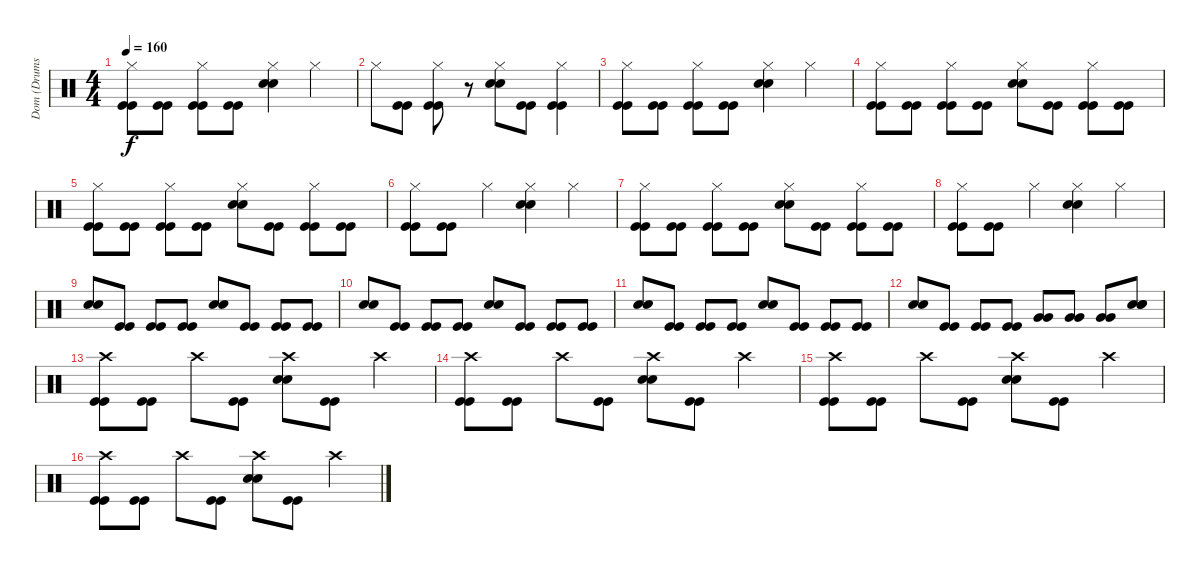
\track ("Dom (Drums)" "Dom (Drums") {instrument percussion}
\staff {score}
\articulation defaults
\ts (4 4)
\tempo 160
\clef neutral
\ks c
("Hi-Hat (closed)" "Kick (hit)" "Kick (hit)").8{dy f} ("Kick (hit)" "Kick (hit)").8 ("Hi-Hat (closed)" "Kick (hit)" "Kick (hit)").8 ("Kick (hit)" "Kick (hit)").8 ("Hi-Hat (closed)" "Snare (hit) 2" "Snare (hit) 2").4 "Hi-Hat (closed)".4 |
"Hi-Hat (closed)".8 ("Kick (hit)" "Kick (hit)").8 ("Hi-Hat (closed)" "Kick (hit)" "Kick (hit)").8 r.8 ("Hi-Hat (closed)" "Snare (hit) 2" "Snare (hit) 2").8 ("Kick (hit)" "Kick (hit)").8 ("Hi-Hat (closed)" "Kick (hit)" "Kick (hit)").4 |
("Hi-Hat (closed)" "Kick (hit)" "Kick (hit)").8 ("Kick (hit)" "Kick (hit)").8 ("Hi-Hat (closed)" "Kick (hit)" "Kick (hit)").8 ("Kick (hit)" "Kick (hit)").8 ("Hi-Hat (closed)" "Snare (hit) 2" "Snare (hit) 2").4 "Hi-Hat (closed)".4 |
("Hi-Hat (closed)" "Kick (hit)" "Kick (hit)").8 ("Kick (hit)" "Kick (hit)").8 ("Hi-Hat (closed)" "Kick (hit)" "Kick (hit)").8 ("Kick (hit)" "Kick (hit)").8 ("Hi-Hat (closed)" "Snare (hit) 2" "Snare (hit) 2").8 ("Kick (hit)" "Kick (hit)").8 ("Hi-Hat (closed)" "Kick (hit)" "Kick (hit)").8 ("Kick (hit)" "Kick (hit)").8 |
("Hi-Hat (closed)" "Kick (hit)" "Kick (hit)").8 ("Kick (hit)" "Kick (hit)").8 ("Hi-Hat (closed)" "Kick (hit)" "Kick (hit)").8 ("Kick (hit)" "Kick (hit)").8 ("Hi-Hat (closed)" "Snare (hit) 2" "Snare (hit) 2").8 ("Kick (hit)" "Kick (hit)").8 ("Hi-Hat (closed)" "Kick (hit)" "Kick (hit)").8 ("Kick (hit)" "Kick (hit)").8 |
("Hi-Hat (closed)" "Kick (hit)" "Kick (hit)").8 ("Kick (hit)" "Kick (hit)").8 "Hi-Hat (closed)".4 ("Hi-Hat (closed)" "Snare (hit) 2" "Snare (hit) 2").4 "Hi-Hat (closed)".4 |
("Hi-Hat (closed)" "Kick (hit)" "Kick (hit)").8 ("Kick (hit)" "Kick (hit)").8 ("Hi-Hat (closed)" "Kick (hit)" "Kick (hit)").8 ("Kick (hit)" "Kick (hit)").8 ("Hi-Hat (closed)" "Snare (hit) 2" "Snare (hit) 2").8 ("Kick (hit)" "Kick (hit)").8 ("Hi-Hat (closed)" "Kick (hit)" "Kick (hit)").8 ("Kick (hit)" "Kick (hit)").8 |
("Hi-Hat (closed)" "Kick (hit)" "Kick (hit)").8 ("Kick (hit)" "Kick (hit)").8 "Hi-Hat (closed)".4 ("Hi-Hat (closed)" "Snare (hit) 2" "Snare (hit) 2").4 "Hi-Hat (closed)".4 |
("Snare (hit) 2" "Snare (hit) 2").8 ("Kick (hit)" "Kick (hit)").8 ("Kick (hit)" "Kick (hit)").8 ("Kick (hit)" "Kick (hit)").8 ("Snare (hit) 2" "Snare (hit) 2").8 ("Kick (hit)" "Kick (hit)").8 ("Kick (hit)" "Kick (hit)").8 ("Kick (hit)" "Kick (hit)").8 |
("Snare (hit) 2" "Snare (hit) 2").8 ("Kick (hit)" "Kick (hit)").8 ("Kick (hit)" "Kick (hit)").8 ("Kick (hit)" "Kick (hit)").8 ("Snare (hit) 2" "Snare (hit) 2").8 ("Kick (hit)" "Kick (hit)").8 ("Kick (hit)" "Kick (hit)").8 ("Kick (hit)" "Kick (hit)").8 |
("Snare (hit) 2" "Snare (hit) 2").8 ("Kick (hit)" "Kick (hit)").8 ("Kick (hit)" "Kick (hit)").8 ("Kick (hit)" "Kick (hit)").8 ("Snare (hit) 2" "Snare (hit) 2").8 ("Kick (hit)" "Kick (hit)").8 ("Kick (hit)" "Kick (hit)").8 ("Kick (hit)" "Kick (hit)").8 |
("Snare (hit) 2" "Snare (hit) 2").8 ("Kick (hit)" "Kick (hit)").8 ("Kick (hit)" "Kick (hit)").8 ("Kick (hit)" "Kick (hit)").8 ("Very Low Tom (hit)" "Very Low Tom (hit)").8 ("Very Low Tom (hit)" "Very Low Tom (hit)").8 ("Very Low Tom (hit)" "Very Low Tom (hit)").8 ("Snare (hit) 2" "Snare (hit) 2" "Snare (hit) 2").8 |
("Crash high (hit)" "Kick (hit)" "Kick (hit)").8 ("Kick (hit)" "Kick (hit)").8 "Crash high (hit)".8 ("Kick (hit)" "Kick (hit)").8 ("Crash high (hit)" "Snare (hit) 2" "Snare (hit) 2").8 ("Kick (hit)" "Kick (hit)").8 "Crash high (hit)".4 |
("Crash high (hit)" "Kick (hit)" "Kick (hit)").8 ("Kick (hit)" "Kick (hit)").8 "Crash high (hit)".8 ("Kick (hit)" "Kick (hit)").8 ("Crash high (hit)" "Snare (hit) 2" "Snare (hit) 2").8 ("Kick (hit)" "Kick (hit)").8 "Crash high (hit)".4 |
("Crash high (hit)" "Kick (hit)" "Kick (hit)").8 ("Kick (hit)" "Kick (hit)").8 "Crash high (hit)".8 ("Kick (hit)" "Kick (hit)").8 ("Crash high (hit)" "Snare (hit) 2" "Snare (hit) 2").8 ("Kick (hit)" "Kick (hit)").8 "Crash high (hit)".4 |
("Crash high (hit)" "Kick (hit)" "Kick (hit)").8 ("Kick (hit)" "Kick (hit)").8 "Crash high (hit)".8 ("Kick (hit)" "Kick (hit)").8 ("Crash high (hit)" "Snare (hit) 2" "Snare (hit) 2").8 ("Kick (hit)" "Kick (hit)").8 "Crash high (hit)".4
